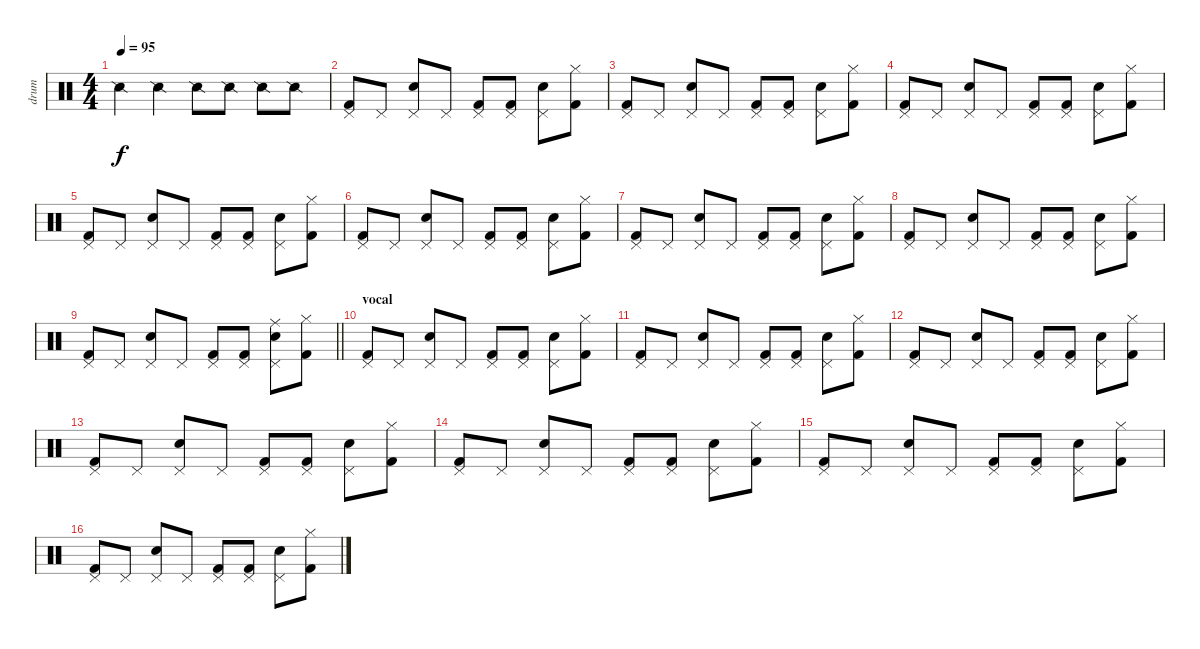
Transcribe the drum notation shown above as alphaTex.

\track ("drum" "drum") {instrument percussion}
\staff {score}
\articulation defaults
\ts (4 4)
\tempo 95
\clef neutral
\ks c "Snare (side stick) 2".4{dy f} "Snare (side stick) 2".4 "Snare (side stick) 2".8 "Snare (side stick) 2".8 "Snare (side stick) 2".8 "Snare (side stick) 2".8
|
("Pedal Hi-Hat (hit)" "Kick (hit) 2").8 "Pedal Hi-Hat (hit)".8 ("Pedal Hi-Hat (hit)" "Hand Clap (hit)").8 "Pedal Hi-Hat (hit)".8 ("Pedal Hi-Hat (hit)" "Kick (hit) 2").8 ("Pedal Hi-Hat (hit)" "Kick (hit) 2").8 ("Pedal Hi-Hat (hit)" "Hand Clap (hit)").8 ("Hi-Hat (closed)" "Kick (hit) 2").8 |
("Pedal Hi-Hat (hit)" "Kick (hit) 2").8 "Pedal Hi-Hat (hit)".8 ("Pedal Hi-Hat (hit)" "Hand Clap (hit)").8 "Pedal Hi-Hat (hit)".8 ("Pedal Hi-Hat (hit)" "Kick (hit) 2").8 ("Pedal Hi-Hat (hit)" "Kick (hit) 2").8 ("Pedal Hi-Hat (hit)" "Hand Clap (hit)").8 ("Hi-Hat (closed)" "Kick (hit) 2").8 |
("Pedal Hi-Hat (hit)" "Kick (hit) 2").8 "Pedal Hi-Hat (hit)".8 ("Pedal Hi-Hat (hit)" "Hand Clap (hit)").8 "Pedal Hi-Hat (hit)".8 ("Pedal Hi-Hat (hit)" "Kick (hit) 2").8 ("Pedal Hi-Hat (hit)" "Kick (hit) 2").8 ("Pedal Hi-Hat (hit)" "Hand Clap (hit)").8 ("Hi-Hat (closed)" "Kick (hit) 2").8 |
("Pedal Hi-Hat (hit)" "Kick (hit) 2").8 "Pedal Hi-Hat (hit)".8 ("Pedal Hi-Hat (hit)" "Hand Clap (hit)").8 "Pedal Hi-Hat (hit)".8 ("Pedal Hi-Hat (hit)" "Kick (hit) 2").8 ("Pedal Hi-Hat (hit)" "Kick (hit) 2").8 ("Pedal Hi-Hat (hit)" "Hand Clap (hit)").8 ("Hi-Hat (closed)" "Kick (hit) 2").8 |
("Pedal Hi-Hat (hit)" "Kick (hit) 2").8 "Pedal Hi-Hat (hit)".8 ("Pedal Hi-Hat (hit)" "Hand Clap (hit)").8 "Pedal Hi-Hat (hit)".8 ("Pedal Hi-Hat (hit)" "Kick (hit) 2").8 ("Pedal Hi-Hat (hit)" "Kick (hit) 2").8 ("Pedal Hi-Hat (hit)" "Hand Clap (hit)").8 ("Hi-Hat (closed)" "Kick (hit) 2").8 |
("Pedal Hi-Hat (hit)" "Kick (hit) 2").8 "Pedal Hi-Hat (hit)".8 ("Pedal Hi-Hat (hit)" "Hand Clap (hit)").8 "Pedal Hi-Hat (hit)".8 ("Pedal Hi-Hat (hit)" "Kick (hit) 2").8 ("Pedal Hi-Hat (hit)" "Kick (hit) 2").8 ("Pedal Hi-Hat (hit)" "Hand Clap (hit)").8 ("Hi-Hat (closed)" "Kick (hit) 2").8 |
("Pedal Hi-Hat (hit)" "Kick (hit) 2").8 "Pedal Hi-Hat (hit)".8 ("Pedal Hi-Hat (hit)" "Hand Clap (hit)").8 "Pedal Hi-Hat (hit)".8 ("Pedal Hi-Hat (hit)" "Kick (hit) 2").8 ("Pedal Hi-Hat (hit)" "Kick (hit) 2").8 ("Pedal Hi-Hat (hit)" "Hand Clap (hit)").8 ("Hi-Hat (closed)" "Kick (hit) 2").8 |
\barLineRight lightlight
("Pedal Hi-Hat (hit)" "Kick (hit) 2").8 "Pedal Hi-Hat (hit)".8 ("Pedal Hi-Hat (hit)" "Hand Clap (hit)").8 "Pedal Hi-Hat (hit)".8 ("Pedal Hi-Hat (hit)" "Kick (hit) 2").8 ("Pedal Hi-Hat (hit)" "Kick (hit) 2").8 ("Pedal Hi-Hat (hit)" "Hand Clap (hit)" "Ride (middle)").8 ("Hi-Hat (closed)" "Kick (hit) 2").8 |
\section ("" "vocal")
("Pedal Hi-Hat (hit)" "Kick (hit) 2").8 "Pedal Hi-Hat (hit)".8 ("Pedal Hi-Hat (hit)" "Hand Clap (hit)").8 "Pedal Hi-Hat (hit)".8 ("Pedal Hi-Hat (hit)" "Kick (hit) 2").8 ("Pedal Hi-Hat (hit)" "Kick (hit) 2").8 ("Pedal Hi-Hat (hit)" "Hand Clap (hit)").8 ("Hi-Hat (closed)" "Kick (hit) 2").8 |
("Pedal Hi-Hat (hit)" "Kick (hit) 2").8 "Pedal Hi-Hat (hit)".8 ("Pedal Hi-Hat (hit)" "Hand Clap (hit)").8 "Pedal Hi-Hat (hit)".8 ("Pedal Hi-Hat (hit)" "Kick (hit) 2").8 ("Pedal Hi-Hat (hit)" "Kick (hit) 2").8 ("Pedal Hi-Hat (hit)" "Hand Clap (hit)").8 ("Hi-Hat (closed)" "Kick (hit) 2").8 |
("Pedal Hi-Hat (hit)" "Kick (hit) 2").8 "Pedal Hi-Hat (hit)".8 ("Pedal Hi-Hat (hit)" "Hand Clap (hit)").8 "Pedal Hi-Hat (hit)".8 ("Pedal Hi-Hat (hit)" "Kick (hit) 2").8 ("Pedal Hi-Hat (hit)" "Kick (hit) 2").8 ("Pedal Hi-Hat (hit)" "Hand Clap (hit)").8 ("Hi-Hat (closed)" "Kick (hit) 2").8 |
("Pedal Hi-Hat (hit)" "Kick (hit) 2").8 "Pedal Hi-Hat (hit)".8 ("Pedal Hi-Hat (hit)" "Hand Clap (hit)").8 "Pedal Hi-Hat (hit)".8 ("Pedal Hi-Hat (hit)" "Kick (hit) 2").8 ("Pedal Hi-Hat (hit)" "Kick (hit) 2").8 ("Pedal Hi-Hat (hit)" "Hand Clap (hit)").8 ("Hi-Hat (closed)" "Kick (hit) 2").8 |
("Pedal Hi-Hat (hit)" "Kick (hit) 2").8 "Pedal Hi-Hat (hit)".8 ("Pedal Hi-Hat (hit)" "Hand Clap (hit)").8 "Pedal Hi-Hat (hit)".8 ("Pedal Hi-Hat (hit)" "Kick (hit) 2").8 ("Pedal Hi-Hat (hit)" "Kick (hit) 2").8 ("Pedal Hi-Hat (hit)" "Hand Clap (hit)").8 ("Hi-Hat (closed)" "Kick (hit) 2").8 |
("Pedal Hi-Hat (hit)" "Kick (hit) 2").8 "Pedal Hi-Hat (hit)".8 ("Pedal Hi-Hat (hit)" "Hand Clap (hit)").8 "Pedal Hi-Hat (hit)".8 ("Pedal Hi-Hat (hit)" "Kick (hit) 2").8 ("Pedal Hi-Hat (hit)" "Kick (hit) 2").8 ("Pedal Hi-Hat (hit)" "Hand Clap (hit)").8 ("Hi-Hat (closed)" "Kick (hit) 2").8 |
("Pedal Hi-Hat (hit)" "Kick (hit) 2").8 "Pedal Hi-Hat (hit)".8 ("Pedal Hi-Hat (hit)" "Hand Clap (hit)").8 "Pedal Hi-Hat (hit)".8 ("Pedal Hi-Hat (hit)" "Kick (hit) 2").8 ("Pedal Hi-Hat (hit)" "Kick (hit) 2").8 ("Pedal Hi-Hat (hit)" "Hand Clap (hit)").8 ("Hi-Hat (closed)" "Kick (hit) 2").8
